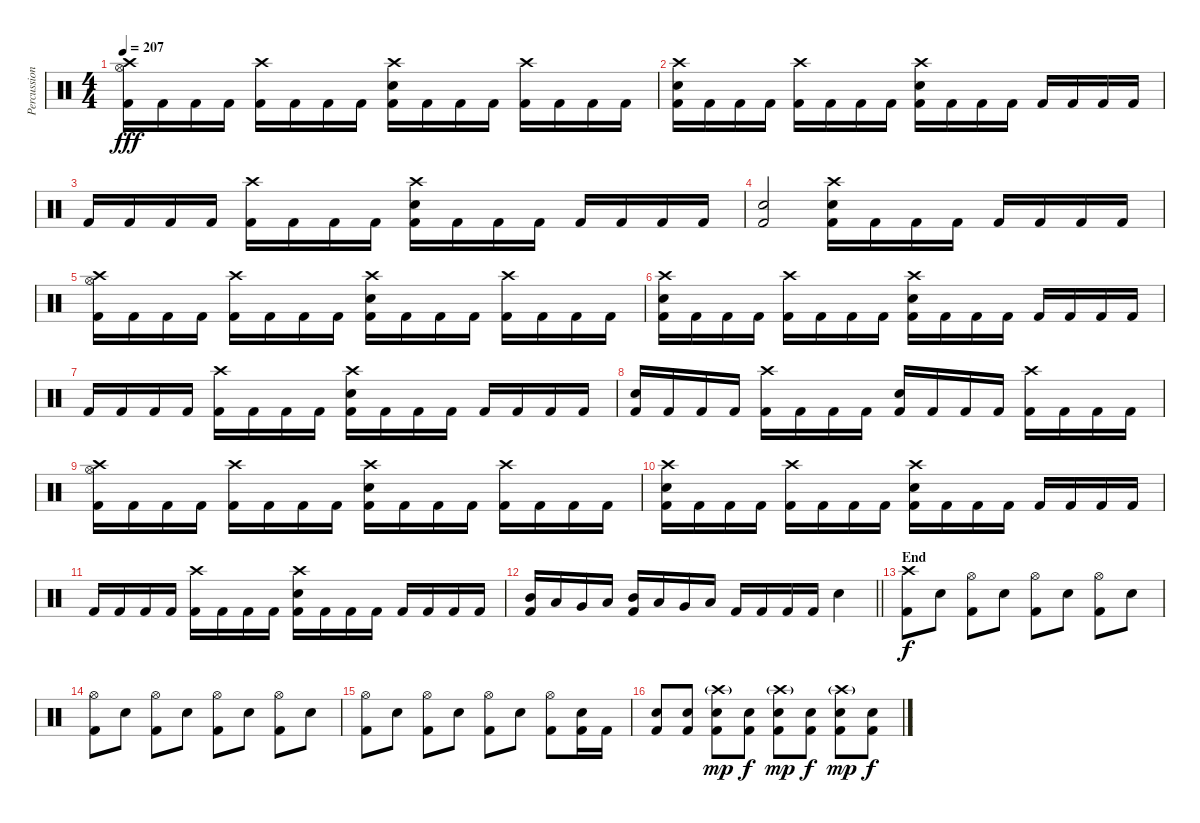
\track ("Percussion" "Percussion") {instrument percussion}
\staff {score}
\articulation defaults
\ts (4 4)
\tempo 207
\clef neutral
\ks c
("Crash high (hit)" "Hi-Hat (open)" "Kick (hit) 2").16{dy fff} "Kick (hit) 2".16 "Kick (hit) 2".16 "Kick (hit) 2".16 ("Crash high (hit)" "Kick (hit) 2").16 "Kick (hit) 2".16 "Kick (hit) 2".16 "Kick (hit) 2".16 ("Crash high (hit)" "Electric Snare (hit)" "Kick (hit) 2").16 "Kick (hit) 2".16 "Kick (hit) 2".16 "Kick (hit) 2".16 ("Crash high (hit)" "Kick (hit) 2").16 "Kick (hit) 2".16 "Kick (hit) 2".16 "Kick (hit) 2".16 |
("Crash high (hit)" "Electric Snare (hit)" "Kick (hit) 2").16 "Kick (hit) 2".16 "Kick (hit) 2".16 "Kick (hit) 2".16 ("Crash high (hit)" "Kick (hit) 2").16 "Kick (hit) 2".16 "Kick (hit) 2".16 "Kick (hit) 2".16 ("Crash high (hit)" "Electric Snare (hit)" "Kick (hit) 2").16 "Kick (hit) 2".16 "Kick (hit) 2".16 "Kick (hit) 2".16 "Kick (hit) 2".16 "Kick (hit) 2".16 "Kick (hit) 2".16 "Kick (hit) 2".16 |
"Kick (hit) 2".16 "Kick (hit) 2".16 "Kick (hit) 2".16 "Kick (hit) 2".16 ("Crash high (hit)" "Kick (hit) 2").16 "Kick (hit) 2".16 "Kick (hit) 2".16 "Kick (hit) 2".16 ("Crash high (hit)" "Electric Snare (hit)" "Kick (hit) 2").16 "Kick (hit) 2".16 "Kick (hit) 2".16 "Kick (hit) 2".16 "Kick (hit) 2".16 "Kick (hit) 2".16 "Kick (hit) 2".16 "Kick (hit) 2".16 |
("Electric Snare (hit)" "Kick (hit) 2").2 ("Crash high (hit)" "Electric Snare (hit)" "Kick (hit) 2").16 "Kick (hit) 2".16 "Kick (hit) 2".16 "Kick (hit) 2".16 "Kick (hit) 2".16 "Kick (hit) 2".16 "Kick (hit) 2".16 "Kick (hit) 2".16 |
("Crash high (hit)" "Hi-Hat (open)" "Kick (hit) 2").16 "Kick (hit) 2".16 "Kick (hit) 2".16 "Kick (hit) 2".16 ("Crash high (hit)" "Kick (hit) 2").16 "Kick (hit) 2".16 "Kick (hit) 2".16 "Kick (hit) 2".16 ("Crash high (hit)" "Electric Snare (hit)" "Kick (hit) 2").16 "Kick (hit) 2".16 "Kick (hit) 2".16 "Kick (hit) 2".16 ("Crash high (hit)" "Kick (hit) 2").16 "Kick (hit) 2".16 "Kick (hit) 2".16 "Kick (hit) 2".16 |
("Crash high (hit)" "Electric Snare (hit)" "Kick (hit) 2").16 "Kick (hit) 2".16 "Kick (hit) 2".16 "Kick (hit) 2".16 ("Crash high (hit)" "Kick (hit) 2").16 "Kick (hit) 2".16 "Kick (hit) 2".16 "Kick (hit) 2".16 ("Crash high (hit)" "Electric Snare (hit)" "Kick (hit) 2").16 "Kick (hit) 2".16 "Kick (hit) 2".16 "Kick (hit) 2".16 "Kick (hit) 2".16 "Kick (hit) 2".16 "Kick (hit) 2".16 "Kick (hit) 2".16 |
"Kick (hit) 2".16 "Kick (hit) 2".16 "Kick (hit) 2".16 "Kick (hit) 2".16 ("Crash high (hit)" "Kick (hit) 2").16 "Kick (hit) 2".16 "Kick (hit) 2".16 "Kick (hit) 2".16 ("Crash high (hit)" "Electric Snare (hit)" "Kick (hit) 2").16 "Kick (hit) 2".16 "Kick (hit) 2".16 "Kick (hit) 2".16 "Kick (hit) 2".16 "Kick (hit) 2".16 "Kick (hit) 2".16 "Kick (hit) 2".16 |
("Electric Snare (hit)" "Kick (hit) 2").16 "Kick (hit) 2".16 "Kick (hit) 2".16 "Kick (hit) 2".16 ("Crash high (hit)" "Kick (hit) 2").16 "Kick (hit) 2".16 "Kick (hit) 2".16 "Kick (hit) 2".16 ("Electric Snare (hit)" "Kick (hit) 2").16 "Kick (hit) 2".16 "Kick (hit) 2".16 "Kick (hit) 2".16 ("Crash high (hit)" "Kick (hit) 2").16 "Kick (hit) 2".16 "Kick (hit) 2".16 "Kick (hit) 2".16 |
("Crash high (hit)" "Hi-Hat (open)" "Kick (hit) 2").16 "Kick (hit) 2".16 "Kick (hit) 2".16 "Kick (hit) 2".16 ("Crash high (hit)" "Kick (hit) 2").16 "Kick (hit) 2".16 "Kick (hit) 2".16 "Kick (hit) 2".16 ("Crash high (hit)" "Electric Snare (hit)" "Kick (hit) 2").16 "Kick (hit) 2".16 "Kick (hit) 2".16 "Kick (hit) 2".16 ("Crash high (hit)" "Kick (hit) 2").16 "Kick (hit) 2".16 "Kick (hit) 2".16 "Kick (hit) 2".16 |
("Crash high (hit)" "Electric Snare (hit)" "Kick (hit) 2").16 "Kick (hit) 2".16 "Kick (hit) 2".16 "Kick (hit) 2".16 ("Crash high (hit)" "Kick (hit) 2").16 "Kick (hit) 2".16 "Kick (hit) 2".16 "Kick (hit) 2".16 ("Crash high (hit)" "Electric Snare (hit)" "Kick (hit) 2").16 "Kick (hit) 2".16 "Kick (hit) 2".16 "Kick (hit) 2".16 "Kick (hit) 2".16 "Kick (hit) 2".16 "Kick (hit) 2".16 "Kick (hit) 2".16 |
"Kick (hit) 2".16 "Kick (hit) 2".16 "Kick (hit) 2".16 "Kick (hit) 2".16 ("Crash high (hit)" "Kick (hit) 2").16 "Kick (hit) 2".16 "Kick (hit) 2".16 "Kick (hit) 2".16 ("Crash high (hit)" "Electric Snare (hit)" "Kick (hit) 2").16 "Kick (hit) 2".16 "Kick (hit) 2".16 "Kick (hit) 2".16 "Kick (hit) 2".16 "Kick (hit) 2".16 "Kick (hit) 2".16 "Kick (hit) 2".16 |
\barLineRight lightlight
("Mid Tom (hit)" "Kick (hit) 2").16 "Low Tom (hit)".16 "Very Low Tom (hit)".16 "Low Floor Tom (hit)".16 ("Mid Tom (hit)" "Kick (hit) 2").16 "Low Tom (hit)".16 "Very Low Tom (hit)".16 "Low Floor Tom (hit)".16 "Kick (hit) 2".16 "Kick (hit) 2".16 "Kick (hit) 2".16 "Kick (hit) 2".16 "Electric Snare (hit)".4 |
\section ("" "End")
("Crash high (hit)" "Kick (hit) 2").8{dy f} "Electric Snare (hit)".8 ("Hi-Hat (open)" "Kick (hit) 2").8 "Electric Snare (hit)".8 ("Hi-Hat (open)" "Kick (hit) 2").8 "Electric Snare (hit)".8 ("Hi-Hat (open)" "Kick (hit) 2").8 "Electric Snare (hit)".8 |
("Hi-Hat (open)" "Kick (hit) 2").8 "Electric Snare (hit)".8 ("Hi-Hat (open)" "Kick (hit) 2").8 "Electric Snare (hit)".8 ("Hi-Hat (open)" "Kick (hit) 2").8 "Electric Snare (hit)".8 ("Hi-Hat (open)" "Kick (hit) 2").8 "Electric Snare (hit)".8 |
("Hi-Hat (open)" "Kick (hit) 2").8 "Electric Snare (hit)".8 ("Hi-Hat (open)" "Kick (hit) 2").8 "Electric Snare (hit)".8 ("Hi-Hat (open)" "Kick (hit) 2").8 "Electric Snare (hit)".8 ("Hi-Hat (open)" "Kick (hit) 2").8 ("Electric Snare (hit)" "Kick (hit) 2").16 "Kick (hit) 2".16 |
("Electric Snare (hit)" "Kick (hit) 2").8 ("Electric Snare (hit)" "Kick (hit) 2").8 ("Crash high (hit)"{g} "Electric Snare (hit)" "Kick (hit) 2").8{dy mp} ("Electric Snare (hit)" "Kick (hit) 2").8{dy f} ("Crash high (hit)"{g} "Electric Snare (hit)" "Kick (hit) 2").8{dy mp} ("Electric Snare (hit)" "Kick (hit) 2").8{dy f} ("Crash high (hit)"{g} "Electric Snare (hit)" "Kick (hit) 2").8{dy mp} ("Electric Snare (hit)" "Kick (hit) 2").8{dy f}
